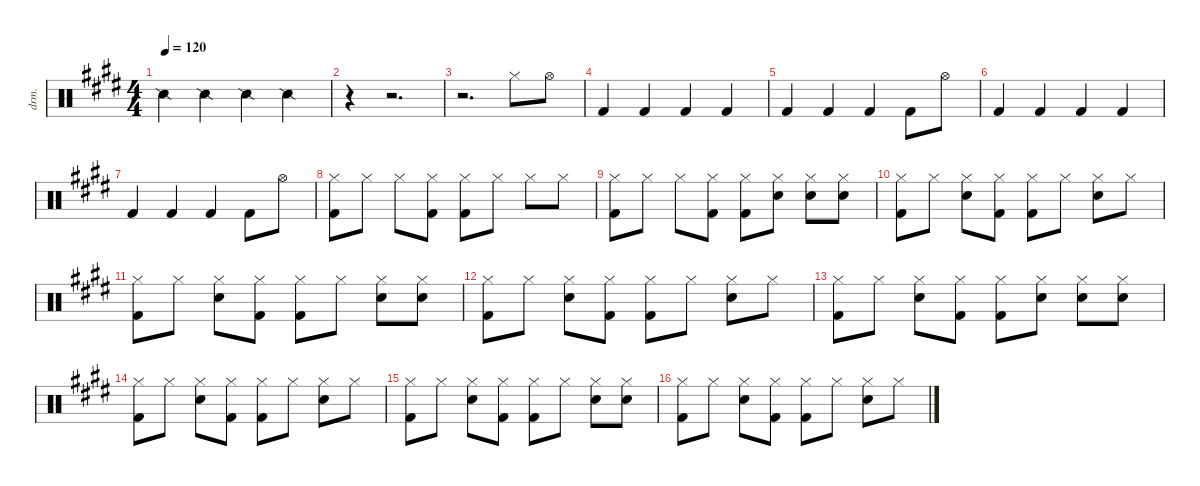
\defaultSystemsLayout 4
\hideDynamics
\bracketExtendMode nobrackets
\track ("Drum" "drm.") {instrument percussion}
\staff {score}
\articulation defaults
\ts (4 4)
\tempo 120
\clef neutral
\ks e "Snare (side stick) 2"{acc forcenatural}.4{dy f beam Down} "Snare (side stick) 2"{acc forcenatural}.4{beam Down} "Snare (side stick) 2"{acc forcenatural}.4{beam Down} "Snare (side stick) 2"{acc forcenatural}.4{beam Down}
|
r.4{beam Down} r.2{d beam Down} |
r.2{d beam Down} "Hi-Hat (closed)"{acc forcenatural}.8{beam Down} "Hi-Hat (open)"{acc forcenatural}.8{beam Down} |
"Kick (hit) 2"{acc forcenatural}.4{beam Up} "Kick (hit) 2"{acc forcenatural}.4{beam Up} "Kick (hit) 2"{acc forcenatural}.4{beam Up} "Kick (hit) 2"{acc forcenatural}.4{beam Up} |
"Kick (hit) 2"{acc forcenatural}.4{beam Up} "Kick (hit) 2"{acc forcenatural}.4{beam Up} "Kick (hit) 2"{acc forcenatural}.4{beam Up} "Kick (hit) 2"{acc forcenatural}.8{beam Down} "Hi-Hat (open)"{acc forcenatural}.8{beam Down} |
"Kick (hit) 2"{acc forcenatural}.4{beam Up} "Kick (hit) 2"{acc forcenatural}.4{beam Up} "Kick (hit) 2"{acc forcenatural}.4{beam Up} "Kick (hit) 2"{acc forcenatural}.4{beam Up} |
"Kick (hit) 2"{acc forcenatural}.4{beam Up} "Kick (hit) 2"{acc forcenatural}.4{beam Up} "Kick (hit) 2"{acc forcenatural}.4{beam Up} "Kick (hit) 2"{acc forcenatural}.8{beam Down} "Hi-Hat (open)"{acc forcenatural}.8{beam Down} |
("Hi-Hat (closed)"{acc forcenatural} "Kick (hit) 2"{acc forcenatural}).8{beam Down} "Hi-Hat (closed)"{acc forcenatural}.8{beam Down} "Hi-Hat (closed)"{acc forcenatural}.8{beam Down} ("Hi-Hat (closed)"{acc forcenatural} "Kick (hit) 2"{acc forcenatural}).8{beam Down} ("Hi-Hat (closed)"{acc forcenatural} "Kick (hit) 2"{acc forcenatural}).8{beam Down} "Hi-Hat (closed)"{acc forcenatural}.8{beam Down} "Hi-Hat (closed)"{acc forcenatural}.8{beam Down} "Hi-Hat (closed)"{acc forcenatural}.8{beam Down} |
("Hi-Hat (closed)"{acc forcenatural} "Kick (hit) 2"{acc forcenatural}).8{beam Down} "Hi-Hat (closed)"{acc forcenatural}.8{beam Down} "Hi-Hat (closed)"{acc forcenatural}.8{beam Down} ("Hi-Hat (closed)"{acc forcenatural} "Kick (hit) 2"{acc forcenatural}).8{beam Down} ("Hi-Hat (closed)"{acc forcenatural} "Kick (hit) 2"{acc forcenatural}).8{beam Down} ("Hi-Hat (closed)"{acc forcenatural} "Snare (hit) 2"{acc forcenatural}).8{beam Down} ("Hi-Hat (closed)"{acc forcenatural} "Snare (hit) 2"{acc forcenatural}).8{beam Down} ("Hi-Hat (closed)"{acc forcenatural} "Snare (hit) 2"{acc forcenatural}).8{beam Down} |
("Hi-Hat (closed)"{acc forcenatural} "Kick (hit) 2"{acc forcenatural}).8{beam Down} "Hi-Hat (closed)"{acc forcenatural}.8{beam Down} ("Hi-Hat (closed)"{acc forcenatural} "Snare (hit) 2"{acc forcenatural}).8{beam Down} ("Hi-Hat (closed)"{acc forcenatural} "Kick (hit) 2"{acc forcenatural}).8{beam Down} ("Hi-Hat (closed)"{acc forcenatural} "Kick (hit) 2"{acc forcenatural}).8{beam Down} "Hi-Hat (closed)"{acc forcenatural}.8{beam Down} ("Hi-Hat (closed)"{acc forcenatural} "Snare (hit) 2"{acc forcenatural}).8{beam Down} "Hi-Hat (closed)"{acc forcenatural}.8{beam Down} |
("Hi-Hat (closed)"{acc forcenatural} "Kick (hit) 2"{acc forcenatural}).8{beam Down} "Hi-Hat (closed)"{acc forcenatural}.8{beam Down} ("Hi-Hat (closed)"{acc forcenatural} "Snare (hit) 2"{acc forcenatural}).8{beam Down} ("Hi-Hat (closed)"{acc forcenatural} "Kick (hit) 2"{acc forcenatural}).8{beam Down} ("Hi-Hat (closed)"{acc forcenatural} "Kick (hit) 2"{acc forcenatural}).8{beam Down} "Hi-Hat (closed)"{acc forcenatural}.8{beam Down} ("Hi-Hat (closed)"{acc forcenatural} "Snare (hit) 2"{acc forcenatural}).8{beam Down} ("Hi-Hat (closed)"{acc forcenatural} "Snare (hit) 2"{acc forcenatural}).8{beam Down} |
("Hi-Hat (closed)"{acc forcenatural} "Kick (hit) 2"{acc forcenatural}).8{beam Down} "Hi-Hat (closed)"{acc forcenatural}.8{beam Down} ("Hi-Hat (closed)"{acc forcenatural} "Snare (hit) 2"{acc forcenatural}).8{beam Down} ("Hi-Hat (closed)"{acc forcenatural} "Kick (hit) 2"{acc forcenatural}).8{beam Down} ("Hi-Hat (closed)"{acc forcenatural} "Kick (hit) 2"{acc forcenatural}).8{beam Down} "Hi-Hat (closed)"{acc forcenatural}.8{beam Down} ("Hi-Hat (closed)"{acc forcenatural} "Snare (hit) 2"{acc forcenatural}).8{beam Down} "Hi-Hat (closed)"{acc forcenatural}.8{beam Down} |
("Hi-Hat (closed)"{acc forcenatural} "Kick (hit) 2"{acc forcenatural}).8{beam Down} "Hi-Hat (closed)"{acc forcenatural}.8{beam Down} ("Hi-Hat (closed)"{acc forcenatural} "Snare (hit) 2"{acc forcenatural}).8{beam Down} ("Hi-Hat (closed)"{acc forcenatural} "Kick (hit) 2"{acc forcenatural}).8{beam Down} ("Hi-Hat (closed)"{acc forcenatural} "Kick (hit) 2"{acc forcenatural}).8{beam Down} ("Hi-Hat (closed)"{acc forcenatural} "Snare (hit) 2"{acc forcenatural}).8{beam Down} ("Hi-Hat (closed)"{acc forcenatural} "Snare (hit) 2"{acc forcenatural}).8{beam Down} ("Hi-Hat (closed)"{acc forcenatural} "Snare (hit) 2"{acc forcenatural}).8{beam Down} |
("Hi-Hat (closed)"{acc forcenatural} "Kick (hit) 2"{acc forcenatural}).8{beam Down} "Hi-Hat (closed)"{acc forcenatural}.8{beam Down} ("Hi-Hat (closed)"{acc forcenatural} "Snare (hit) 2"{acc forcenatural}).8{beam Down} ("Hi-Hat (closed)"{acc forcenatural} "Kick (hit) 2"{acc forcenatural}).8{beam Down} ("Hi-Hat (closed)"{acc forcenatural} "Kick (hit) 2"{acc forcenatural}).8{beam Down} "Hi-Hat (closed)"{acc forcenatural}.8{beam Down} ("Hi-Hat (closed)"{acc forcenatural} "Snare (hit) 2"{acc forcenatural}).8{beam Down} "Hi-Hat (closed)"{acc forcenatural}.8{beam Down} |
("Hi-Hat (closed)"{acc forcenatural} "Kick (hit) 2"{acc forcenatural}).8{beam Down} "Hi-Hat (closed)"{acc forcenatural}.8{beam Down} ("Hi-Hat (closed)"{acc forcenatural} "Snare (hit) 2"{acc forcenatural}).8{beam Down} ("Hi-Hat (closed)"{acc forcenatural} "Kick (hit) 2"{acc forcenatural}).8{beam Down} ("Hi-Hat (closed)"{acc forcenatural} "Kick (hit) 2"{acc forcenatural}).8{beam Down} "Hi-Hat (closed)"{acc forcenatural}.8{beam Down} ("Hi-Hat (closed)"{acc forcenatural} "Snare (hit) 2"{acc forcenatural}).8{beam Down} ("Hi-Hat (closed)"{acc forcenatural} "Snare (hit) 2"{acc forcenatural}).8{beam Down} |
("Hi-Hat (closed)"{acc forcenatural} "Kick (hit) 2"{acc forcenatural}).8{beam Down} "Hi-Hat (closed)"{acc forcenatural}.8{beam Down} ("Hi-Hat (closed)"{acc forcenatural} "Snare (hit) 2"{acc forcenatural}).8{beam Down} ("Hi-Hat (closed)"{acc forcenatural} "Kick (hit) 2"{acc forcenatural}).8{beam Down} ("Hi-Hat (closed)"{acc forcenatural} "Kick (hit) 2"{acc forcenatural}).8{beam Down} "Hi-Hat (closed)"{acc forcenatural}.8{beam Down} ("Hi-Hat (closed)"{acc forcenatural} "Snare (hit) 2"{acc forcenatural}).8{beam Down} "Hi-Hat (closed)"{acc forcenatural}.8{beam Down}
